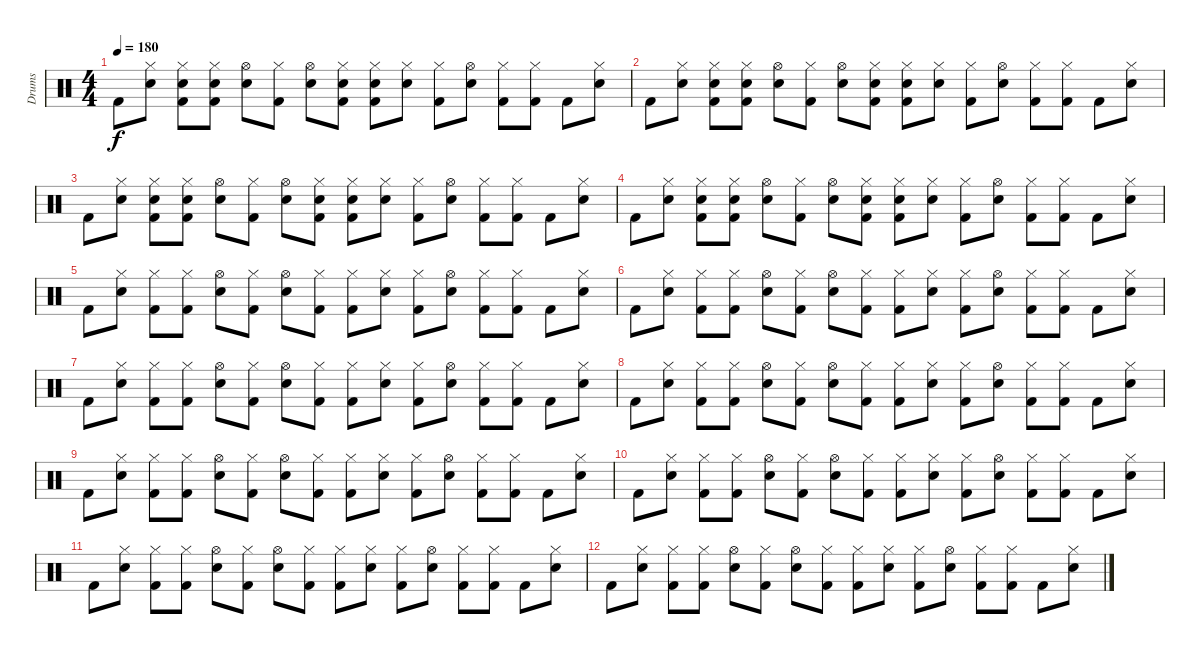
\track ("Drums" "Drums") {instrument percussion}
\staff {score}
\articulation defaults
\ts (4 4)
\tempo 180
\clef neutral
\ks c "Kick (hit) 2".8{dy f}
("Electric Snare (hit)" "Hi-Hat (closed)").8 ("Kick (hit) 2" "Electric Snare (hit)" "Hi-Hat (closed)").8 ("Kick (hit) 2" "Electric Snare (hit)" "Hi-Hat (closed)").8 ("Electric Snare (hit)" "Hi-Hat (open)").8 ("Kick (hit) 2" "Hi-Hat (closed)").8 ("Electric Snare (hit)" "Hi-Hat (open)").8 ("Kick (hit) 2" "Electric Snare (hit)" "Hi-Hat (closed)").8 ("Kick (hit) 2" "Electric Snare (hit)" "Hi-Hat (closed)").8 ("Electric Snare (hit)" "Hi-Hat (closed)").8 ("Kick (hit) 2" "Hi-Hat (closed)").8 ("Electric Snare (hit)" "Hi-Hat (open)").8 ("Kick (hit) 2" "Hi-Hat (closed)").8 ("Kick (hit) 2" "Hi-Hat (closed)").8 "Kick (hit) 2".8 ("Electric Snare (hit)" "Hi-Hat (closed)").8 |
"Kick (hit) 2".8 ("Electric Snare (hit)" "Hi-Hat (closed)").8 ("Kick (hit) 2" "Electric Snare (hit)" "Hi-Hat (closed)").8 ("Kick (hit) 2" "Electric Snare (hit)" "Hi-Hat (closed)").8 ("Electric Snare (hit)" "Hi-Hat (open)").8 ("Kick (hit) 2" "Hi-Hat (closed)").8 ("Electric Snare (hit)" "Hi-Hat (open)").8 ("Kick (hit) 2" "Electric Snare (hit)" "Hi-Hat (closed)").8 ("Kick (hit) 2" "Electric Snare (hit)" "Hi-Hat (closed)").8 ("Electric Snare (hit)" "Hi-Hat (closed)").8 ("Kick (hit) 2" "Hi-Hat (closed)").8 ("Electric Snare (hit)" "Hi-Hat (open)").8 ("Kick (hit) 2" "Hi-Hat (closed)").8 ("Kick (hit) 2" "Hi-Hat (closed)").8 "Kick (hit) 2".8 ("Electric Snare (hit)" "Hi-Hat (closed)").8 |
"Kick (hit) 2".8 ("Electric Snare (hit)" "Hi-Hat (closed)").8 ("Kick (hit) 2" "Electric Snare (hit)" "Hi-Hat (closed)").8 ("Kick (hit) 2" "Electric Snare (hit)" "Hi-Hat (closed)").8 ("Electric Snare (hit)" "Hi-Hat (open)").8 ("Kick (hit) 2" "Hi-Hat (closed)").8 ("Electric Snare (hit)" "Hi-Hat (open)").8 ("Kick (hit) 2" "Electric Snare (hit)" "Hi-Hat (closed)").8 ("Kick (hit) 2" "Electric Snare (hit)" "Hi-Hat (closed)").8 ("Electric Snare (hit)" "Hi-Hat (closed)").8 ("Kick (hit) 2" "Hi-Hat (closed)").8 ("Electric Snare (hit)" "Hi-Hat (open)").8 ("Kick (hit) 2" "Hi-Hat (closed)").8 ("Kick (hit) 2" "Hi-Hat (closed)").8 "Kick (hit) 2".8 ("Electric Snare (hit)" "Hi-Hat (closed)").8 |
"Kick (hit) 2".8 ("Electric Snare (hit)" "Hi-Hat (closed)").8 ("Kick (hit) 2" "Electric Snare (hit)" "Hi-Hat (closed)").8 ("Kick (hit) 2" "Electric Snare (hit)" "Hi-Hat (closed)").8 ("Electric Snare (hit)" "Hi-Hat (open)").8 ("Kick (hit) 2" "Hi-Hat (closed)").8 ("Electric Snare (hit)" "Hi-Hat (open)").8 ("Kick (hit) 2" "Electric Snare (hit)" "Hi-Hat (closed)").8 ("Kick (hit) 2" "Electric Snare (hit)" "Hi-Hat (closed)").8 ("Electric Snare (hit)" "Hi-Hat (closed)").8 ("Kick (hit) 2" "Hi-Hat (closed)").8 ("Electric Snare (hit)" "Hi-Hat (open)").8 ("Kick (hit) 2" "Hi-Hat (closed)").8 ("Kick (hit) 2" "Hi-Hat (closed)").8 "Kick (hit) 2".8 ("Electric Snare (hit)" "Hi-Hat (closed)").8 |
"Kick (hit) 2".8 ("Electric Snare (hit)" "Hi-Hat (closed)").8 ("Kick (hit) 2" "Hi-Hat (closed)").8 ("Kick (hit) 2" "Hi-Hat (closed)").8 ("Electric Snare (hit)" "Hi-Hat (open)").8 ("Kick (hit) 2" "Hi-Hat (closed)").8 ("Electric Snare (hit)" "Hi-Hat (open)").8 ("Kick (hit) 2" "Hi-Hat (closed)").8 ("Kick (hit) 2" "Hi-Hat (closed)").8 ("Electric Snare (hit)" "Hi-Hat (closed)").8 ("Kick (hit) 2" "Hi-Hat (closed)").8 ("Electric Snare (hit)" "Hi-Hat (open)").8 ("Kick (hit) 2" "Hi-Hat (closed)").8 ("Kick (hit) 2" "Hi-Hat (closed)").8 "Kick (hit) 2".8 ("Electric Snare (hit)" "Hi-Hat (closed)").8 |
"Kick (hit) 2".8 ("Electric Snare (hit)" "Hi-Hat (closed)").8 ("Kick (hit) 2" "Hi-Hat (closed)").8 ("Kick (hit) 2" "Hi-Hat (closed)").8 ("Electric Snare (hit)" "Hi-Hat (open)").8 ("Kick (hit) 2" "Hi-Hat (closed)").8 ("Electric Snare (hit)" "Hi-Hat (open)").8 ("Kick (hit) 2" "Hi-Hat (closed)").8 ("Kick (hit) 2" "Hi-Hat (closed)").8 ("Electric Snare (hit)" "Hi-Hat (closed)").8 ("Kick (hit) 2" "Hi-Hat (closed)").8 ("Electric Snare (hit)" "Hi-Hat (open)").8 ("Kick (hit) 2" "Hi-Hat (closed)").8 ("Kick (hit) 2" "Hi-Hat (closed)").8 "Kick (hit) 2".8 ("Electric Snare (hit)" "Hi-Hat (closed)").8 |
"Kick (hit) 2".8 ("Electric Snare (hit)" "Hi-Hat (closed)").8 ("Kick (hit) 2" "Hi-Hat (closed)").8 ("Kick (hit) 2" "Hi-Hat (closed)").8 ("Electric Snare (hit)" "Hi-Hat (open)").8 ("Kick (hit) 2" "Hi-Hat (closed)").8 ("Electric Snare (hit)" "Hi-Hat (open)").8 ("Kick (hit) 2" "Hi-Hat (closed)").8 ("Kick (hit) 2" "Hi-Hat (closed)").8 ("Electric Snare (hit)" "Hi-Hat (closed)").8 ("Kick (hit) 2" "Hi-Hat (closed)").8 ("Electric Snare (hit)" "Hi-Hat (open)").8 ("Kick (hit) 2" "Hi-Hat (closed)").8 ("Kick (hit) 2" "Hi-Hat (closed)").8 "Kick (hit) 2".8 ("Electric Snare (hit)" "Hi-Hat (closed)").8 |
"Kick (hit) 2".8 ("Electric Snare (hit)" "Hi-Hat (closed)").8 ("Kick (hit) 2" "Hi-Hat (closed)").8 ("Kick (hit) 2" "Hi-Hat (closed)").8 ("Electric Snare (hit)" "Hi-Hat (open)").8 ("Kick (hit) 2" "Hi-Hat (closed)").8 ("Electric Snare (hit)" "Hi-Hat (open)").8 ("Kick (hit) 2" "Hi-Hat (closed)").8 ("Kick (hit) 2" "Hi-Hat (closed)").8 ("Electric Snare (hit)" "Hi-Hat (closed)").8 ("Kick (hit) 2" "Hi-Hat (closed)").8 ("Electric Snare (hit)" "Hi-Hat (open)").8 ("Kick (hit) 2" "Hi-Hat (closed)").8 ("Kick (hit) 2" "Hi-Hat (closed)").8 "Kick (hit) 2".8 ("Electric Snare (hit)" "Hi-Hat (closed)").8 |
"Kick (hit) 2".8 ("Electric Snare (hit)" "Hi-Hat (closed)").8 ("Kick (hit) 2" "Hi-Hat (closed)").8 ("Kick (hit) 2" "Hi-Hat (closed)").8 ("Electric Snare (hit)" "Hi-Hat (open)").8 ("Kick (hit) 2" "Hi-Hat (closed)").8 ("Electric Snare (hit)" "Hi-Hat (open)").8 ("Kick (hit) 2" "Hi-Hat (closed)").8 ("Kick (hit) 2" "Hi-Hat (closed)").8 ("Electric Snare (hit)" "Hi-Hat (closed)").8 ("Kick (hit) 2" "Hi-Hat (closed)").8 ("Electric Snare (hit)" "Hi-Hat (open)").8 ("Kick (hit) 2" "Hi-Hat (closed)").8 ("Kick (hit) 2" "Hi-Hat (closed)").8 "Kick (hit) 2".8 ("Electric Snare (hit)" "Hi-Hat (closed)").8 |
"Kick (hit) 2".8 ("Electric Snare (hit)" "Hi-Hat (closed)").8 ("Kick (hit) 2" "Hi-Hat (closed)").8 ("Kick (hit) 2" "Hi-Hat (closed)").8 ("Electric Snare (hit)" "Hi-Hat (open)").8 ("Kick (hit) 2" "Hi-Hat (closed)").8 ("Electric Snare (hit)" "Hi-Hat (open)").8 ("Kick (hit) 2" "Hi-Hat (closed)").8 ("Kick (hit) 2" "Hi-Hat (closed)").8 ("Electric Snare (hit)" "Hi-Hat (closed)").8 ("Kick (hit) 2" "Hi-Hat (closed)").8 ("Electric Snare (hit)" "Hi-Hat (open)").8 ("Kick (hit) 2" "Hi-Hat (closed)").8 ("Kick (hit) 2" "Hi-Hat (closed)").8 "Kick (hit) 2".8 ("Electric Snare (hit)" "Hi-Hat (closed)").8 |
"Kick (hit) 2".8 ("Electric Snare (hit)" "Hi-Hat (closed)").8 ("Kick (hit) 2" "Hi-Hat (closed)").8 ("Kick (hit) 2" "Hi-Hat (closed)").8 ("Electric Snare (hit)" "Hi-Hat (open)").8 ("Kick (hit) 2" "Hi-Hat (closed)").8 ("Electric Snare (hit)" "Hi-Hat (open)").8 ("Kick (hit) 2" "Hi-Hat (closed)").8 ("Kick (hit) 2" "Hi-Hat (closed)").8 ("Electric Snare (hit)" "Hi-Hat (closed)").8 ("Kick (hit) 2" "Hi-Hat (closed)").8 ("Electric Snare (hit)" "Hi-Hat (open)").8 ("Kick (hit) 2" "Hi-Hat (closed)").8 ("Kick (hit) 2" "Hi-Hat (closed)").8 "Kick (hit) 2".8 ("Electric Snare (hit)" "Hi-Hat (closed)").8 |
"Kick (hit) 2".8 ("Electric Snare (hit)" "Hi-Hat (closed)").8 ("Kick (hit) 2" "Hi-Hat (closed)").8 ("Kick (hit) 2" "Hi-Hat (closed)").8 ("Electric Snare (hit)" "Hi-Hat (open)").8 ("Kick (hit) 2" "Hi-Hat (closed)").8 ("Electric Snare (hit)" "Hi-Hat (open)").8 ("Kick (hit) 2" "Hi-Hat (closed)").8 ("Kick (hit) 2" "Hi-Hat (closed)").8 ("Electric Snare (hit)" "Hi-Hat (closed)").8 ("Kick (hit) 2" "Hi-Hat (closed)").8 ("Electric Snare (hit)" "Hi-Hat (open)").8 ("Kick (hit) 2" "Hi-Hat (closed)").8 ("Kick (hit) 2" "Hi-Hat (closed)").8 "Kick (hit) 2".8 ("Electric Snare (hit)" "Hi-Hat (closed)").8
